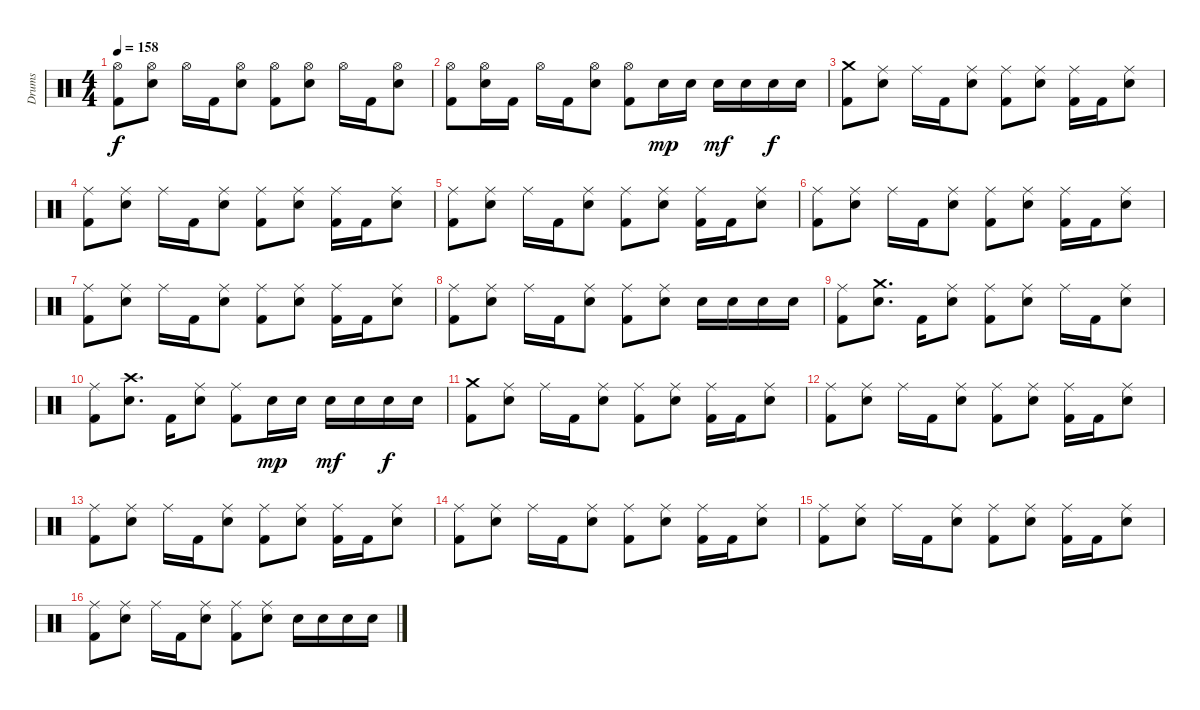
\track ("Drums" "Drums") {instrument percussion}
\staff {score}
\articulation defaults
\ts (4 4)
\tempo 158
\clef neutral
\ks c
("Hi-Hat (open)" "Kick (hit) 2").8{dy f} ("Hi-Hat (open)" "Electric Snare (hit)").8 "Hi-Hat (open)".16 "Kick (hit) 2".16 ("Hi-Hat (open)" "Electric Snare (hit)").8 ("Hi-Hat (open)" "Kick (hit) 2").8 ("Hi-Hat (open)" "Electric Snare (hit)").8 "Hi-Hat (open)".16 "Kick (hit) 2".16 ("Hi-Hat (open)" "Electric Snare (hit)").8 |
("Hi-Hat (open)" "Kick (hit) 2").8 ("Hi-Hat (open)" "Electric Snare (hit)").16 "Kick (hit) 2".16 "Hi-Hat (open)".16 "Kick (hit) 2".16 ("Hi-Hat (open)" "Electric Snare (hit)").8 ("Hi-Hat (open)" "Kick (hit) 2").8 "Electric Snare (hit)".16{dy mp} "Electric Snare (hit)".16 "Electric Snare (hit)".16{dy mf} "Electric Snare (hit)".16 "Electric Snare (hit)".16{dy f} "Electric Snare (hit)".16 |
("Crash medium (hit)" "Kick (hit) 2").8 ("Ride (middle)" "Electric Snare (hit)").8 "Ride (middle)".16 "Kick (hit) 2".16 ("Ride (middle)" "Electric Snare (hit)").8 ("Ride (middle)" "Kick (hit) 2").8 ("Ride (middle)" "Electric Snare (hit)").8 ("Ride (middle)" "Kick (hit) 2").16 "Kick (hit) 2".16 ("Ride (middle)" "Electric Snare (hit)").8 |
("Ride (middle)" "Kick (hit) 2").8 ("Ride (middle)" "Electric Snare (hit)").8 "Ride (middle)".16 "Kick (hit) 2".16 ("Ride (middle)" "Electric Snare (hit)").8 ("Ride (middle)" "Kick (hit) 2").8 ("Ride (middle)" "Electric Snare (hit)").8 ("Ride (middle)" "Kick (hit) 2").16 "Kick (hit) 2".16 ("Ride (middle)" "Electric Snare (hit)").8 |
("Ride (middle)" "Kick (hit) 2").8 ("Ride (middle)" "Electric Snare (hit)").8 "Ride (middle)".16 "Kick (hit) 2".16 ("Ride (middle)" "Electric Snare (hit)").8 ("Ride (middle)" "Kick (hit) 2").8 ("Ride (middle)" "Electric Snare (hit)").8 ("Ride (middle)" "Kick (hit) 2").16 "Kick (hit) 2".16 ("Ride (middle)" "Electric Snare (hit)").8 |
("Ride (middle)" "Kick (hit) 2").8 ("Ride (middle)" "Electric Snare (hit)").8 "Ride (middle)".16 "Kick (hit) 2".16 ("Ride (middle)" "Electric Snare (hit)").8 ("Ride (middle)" "Kick (hit) 2").8 ("Ride (middle)" "Electric Snare (hit)").8 ("Ride (middle)" "Kick (hit) 2").16 "Kick (hit) 2".16 ("Ride (middle)" "Electric Snare (hit)").8 |
("Ride (middle)" "Kick (hit) 2").8 ("Ride (middle)" "Electric Snare (hit)").8 "Ride (middle)".16 "Kick (hit) 2".16 ("Ride (middle)" "Electric Snare (hit)").8 ("Ride (middle)" "Kick (hit) 2").8 ("Ride (middle)" "Electric Snare (hit)").8 ("Ride (middle)" "Kick (hit) 2").16 "Kick (hit) 2".16 ("Ride (middle)" "Electric Snare (hit)").8 |
("Ride (middle)" "Kick (hit) 2").8 ("Ride (middle)" "Electric Snare (hit)").8 "Ride (middle)".16 "Kick (hit) 2".16 ("Ride (middle)" "Electric Snare (hit)").8 ("Ride (middle)" "Kick (hit) 2").8 ("Ride (middle)" "Electric Snare (hit)").8 "Electric Snare (hit)".16 "Electric Snare (hit)".16 "Electric Snare (hit)".16 "Electric Snare (hit)".16 |
("Ride (middle)" "Kick (hit) 2").8 ("Crash medium (hit)" "Electric Snare (hit)").8{d} "Kick (hit) 2".16 ("Ride (middle)" "Electric Snare (hit)").8 ("Ride (middle)" "Kick (hit) 2").8 ("Ride (middle)" "Electric Snare (hit)").8 "Ride (middle)".16 "Kick (hit) 2".16 ("Ride (middle)" "Electric Snare (hit)").8 |
("Ride (middle)" "Kick (hit) 2").8 ("Crash high (hit)" "Electric Snare (hit)").8{d} "Kick (hit) 2".16 ("Ride (middle)" "Electric Snare (hit)").8 ("Ride (middle)" "Kick (hit) 2").8 "Electric Snare (hit)".16{dy mp} "Electric Snare (hit)".16 "Electric Snare (hit)".16{dy mf} "Electric Snare (hit)".16 "Electric Snare (hit)".16{dy f} "Electric Snare (hit)".16 |
("Crash medium (hit)" "Kick (hit) 2").8 ("Ride (middle)" "Electric Snare (hit)").8 "Ride (middle)".16 "Kick (hit) 2".16 ("Ride (middle)" "Electric Snare (hit)").8 ("Ride (middle)" "Kick (hit) 2").8 ("Ride (middle)" "Electric Snare (hit)").8 ("Ride (middle)" "Kick (hit) 2").16 "Kick (hit) 2".16 ("Ride (middle)" "Electric Snare (hit)").8 |
("Ride (middle)" "Kick (hit) 2").8 ("Ride (middle)" "Electric Snare (hit)").8 "Ride (middle)".16 "Kick (hit) 2".16 ("Ride (middle)" "Electric Snare (hit)").8 ("Ride (middle)" "Kick (hit) 2").8 ("Ride (middle)" "Electric Snare (hit)").8 ("Ride (middle)" "Kick (hit) 2").16 "Kick (hit) 2".16 ("Ride (middle)" "Electric Snare (hit)").8 |
("Ride (middle)" "Kick (hit) 2").8 ("Ride (middle)" "Electric Snare (hit)").8 "Ride (middle)".16 "Kick (hit) 2".16 ("Ride (middle)" "Electric Snare (hit)").8 ("Ride (middle)" "Kick (hit) 2").8 ("Ride (middle)" "Electric Snare (hit)").8 ("Ride (middle)" "Kick (hit) 2").16 "Kick (hit) 2".16 ("Ride (middle)" "Electric Snare (hit)").8 |
("Ride (middle)" "Kick (hit) 2").8 ("Ride (middle)" "Electric Snare (hit)").8 "Ride (middle)".16 "Kick (hit) 2".16 ("Ride (middle)" "Electric Snare (hit)").8 ("Ride (middle)" "Kick (hit) 2").8 ("Ride (middle)" "Electric Snare (hit)").8 ("Ride (middle)" "Kick (hit) 2").16 "Kick (hit) 2".16 ("Ride (middle)" "Electric Snare (hit)").8 |
("Ride (middle)" "Kick (hit) 2").8 ("Ride (middle)" "Electric Snare (hit)").8 "Ride (middle)".16 "Kick (hit) 2".16 ("Ride (middle)" "Electric Snare (hit)").8 ("Ride (middle)" "Kick (hit) 2").8 ("Ride (middle)" "Electric Snare (hit)").8 ("Ride (middle)" "Kick (hit) 2").16 "Kick (hit) 2".16 ("Ride (middle)" "Electric Snare (hit)").8 |
("Ride (middle)" "Kick (hit) 2").8 ("Ride (middle)" "Electric Snare (hit)").8 "Ride (middle)".16 "Kick (hit) 2".16 ("Ride (middle)" "Electric Snare (hit)").8 ("Ride (middle)" "Kick (hit) 2").8 ("Ride (middle)" "Electric Snare (hit)").8 "Electric Snare (hit)".16 "Electric Snare (hit)".16 "Electric Snare (hit)".16 "Electric Snare (hit)".16
